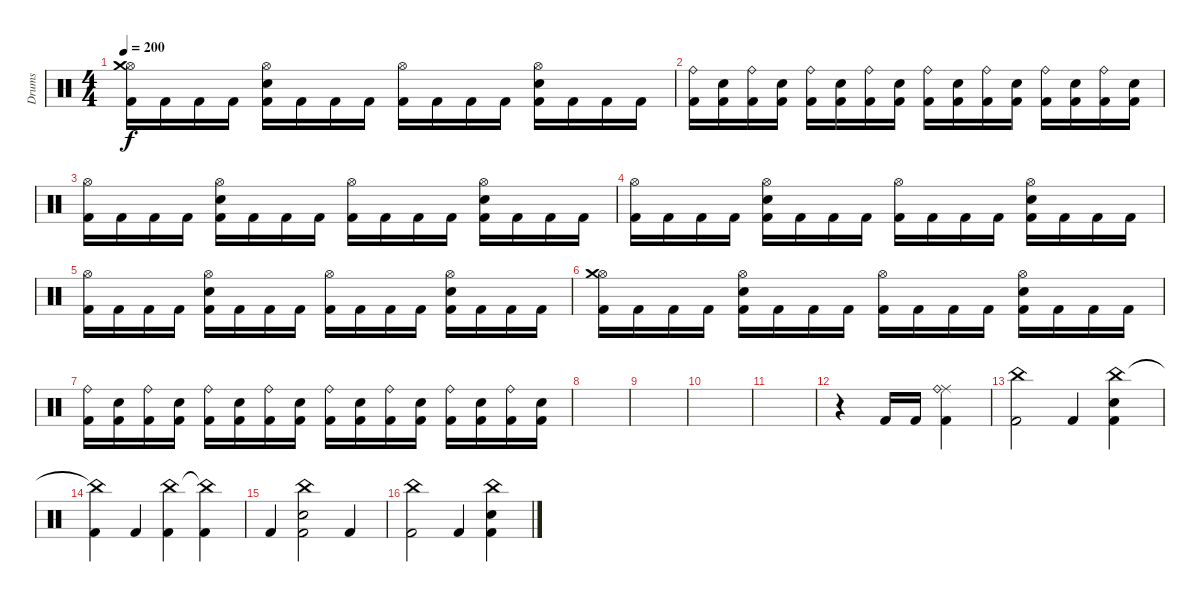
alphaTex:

\track ("Drums" "Drums") {instrument percussion}
\staff {score}
\articulation defaults
\ts (4 4)
\tempo 200
\clef neutral
\ks c
("Hi-Hat (open)" "Crash medium (hit)" "Kick (hit) 2").16{dy f} "Kick (hit) 2".16 "Kick (hit) 2".16 "Kick (hit) 2".16 ("Hi-Hat (open)" "Electric Snare (hit)" "Kick (hit) 2").16 "Kick (hit) 2".16 "Kick (hit) 2".16 "Kick (hit) 2".16 ("Hi-Hat (open)" "Kick (hit) 2").16 "Kick (hit) 2".16 "Kick (hit) 2".16 "Kick (hit) 2".16 ("Hi-Hat (open)" "Electric Snare (hit)" "Kick (hit) 2").16 "Kick (hit) 2".16 "Kick (hit) 2".16 "Kick (hit) 2".16 |
("Ride (bell)" "Kick (hit) 2").16 ("Electric Snare (hit)" "Kick (hit) 2").16 ("Ride (bell)" "Kick (hit) 2").16 ("Electric Snare (hit)" "Kick (hit) 2").16 ("Ride (bell)" "Kick (hit) 2").16 ("Electric Snare (hit)" "Kick (hit) 2").16 ("Ride (bell)" "Kick (hit) 2").16 ("Electric Snare (hit)" "Kick (hit) 2").16 ("Ride (bell)" "Kick (hit) 2").16 ("Electric Snare (hit)" "Kick (hit) 2").16 ("Ride (bell)" "Kick (hit) 2").16 ("Electric Snare (hit)" "Kick (hit) 2").16 ("Ride (bell)" "Kick (hit) 2").16 ("Electric Snare (hit)" "Kick (hit) 2").16 ("Ride (bell)" "Kick (hit) 2").16 ("Electric Snare (hit)" "Kick (hit) 2").16 |
("Hi-Hat (open)" "Kick (hit) 2").16 "Kick (hit) 2".16 "Kick (hit) 2".16 "Kick (hit) 2".16 ("Hi-Hat (open)" "Electric Snare (hit)" "Kick (hit) 2").16 "Kick (hit) 2".16 "Kick (hit) 2".16 "Kick (hit) 2".16 ("Hi-Hat (open)" "Kick (hit) 2").16 "Kick (hit) 2".16 "Kick (hit) 2".16 "Kick (hit) 2".16 ("Hi-Hat (open)" "Electric Snare (hit)" "Kick (hit) 2").16 "Kick (hit) 2".16 "Kick (hit) 2".16 "Kick (hit) 2".16 |
("Hi-Hat (open)" "Kick (hit) 2").16 "Kick (hit) 2".16 "Kick (hit) 2".16 "Kick (hit) 2".16 ("Hi-Hat (open)" "Electric Snare (hit)" "Kick (hit) 2").16 "Kick (hit) 2".16 "Kick (hit) 2".16 "Kick (hit) 2".16 ("Hi-Hat (open)" "Kick (hit) 2").16 "Kick (hit) 2".16 "Kick (hit) 2".16 "Kick (hit) 2".16 ("Hi-Hat (open)" "Electric Snare (hit)" "Kick (hit) 2").16 "Kick (hit) 2".16 "Kick (hit) 2".16 "Kick (hit) 2".16 |
("Hi-Hat (open)" "Kick (hit) 2").16 "Kick (hit) 2".16 "Kick (hit) 2".16 "Kick (hit) 2".16 ("Hi-Hat (open)" "Electric Snare (hit)" "Kick (hit) 2").16 "Kick (hit) 2".16 "Kick (hit) 2".16 "Kick (hit) 2".16 ("Hi-Hat (open)" "Kick (hit) 2").16 "Kick (hit) 2".16 "Kick (hit) 2".16 "Kick (hit) 2".16 ("Hi-Hat (open)" "Electric Snare (hit)" "Kick (hit) 2").16 "Kick (hit) 2".16 "Kick (hit) 2".16 "Kick (hit) 2".16 |
("Hi-Hat (open)" "Crash medium (hit)" "Kick (hit) 2").16 "Kick (hit) 2".16 "Kick (hit) 2".16 "Kick (hit) 2".16 ("Hi-Hat (open)" "Electric Snare (hit)" "Kick (hit) 2").16 "Kick (hit) 2".16 "Kick (hit) 2".16 "Kick (hit) 2".16 ("Hi-Hat (open)" "Kick (hit) 2").16 "Kick (hit) 2".16 "Kick (hit) 2".16 "Kick (hit) 2".16 ("Hi-Hat (open)" "Electric Snare (hit)" "Kick (hit) 2").16 "Kick (hit) 2".16 "Kick (hit) 2".16 "Kick (hit) 2".16 |
("Ride (bell)" "Kick (hit) 2").16 ("Electric Snare (hit)" "Kick (hit) 2").16 ("Ride (bell)" "Kick (hit) 2").16 ("Electric Snare (hit)" "Kick (hit) 2").16 ("Ride (bell)" "Kick (hit) 2").16 ("Electric Snare (hit)" "Kick (hit) 2").16 ("Ride (bell)" "Kick (hit) 2").16 ("Electric Snare (hit)" "Kick (hit) 2").16 ("Ride (bell)" "Kick (hit) 2").16 ("Electric Snare (hit)" "Kick (hit) 2").16 ("Ride (bell)" "Kick (hit) 2").16 ("Electric Snare (hit)" "Kick (hit) 2").16 ("Ride (bell)" "Kick (hit) 2").16 ("Electric Snare (hit)" "Kick (hit) 2").16 ("Ride (bell)" "Kick (hit) 2").16 ("Electric Snare (hit)" "Kick (hit) 2").16 |
|
|
|
|
r.4 "Kick (hit) 2".16 "Kick (hit) 2".16 ("Ride (middle)" "Ride (bell)" "Kick (hit) 2").4 |
("China (hit)" "Kick (hit) 2").2 "Kick (hit) 2".4 ("China (hit)" "Electric Snare (hit)" "Kick (hit) 2").4 |
("China (hit)"{t} "Kick (hit) 2").4 "Kick (hit) 2".4 ("China (hit)" "Kick (hit) 2").4 ("China (hit)"{t} "Kick (hit) 2").4 |
"Kick (hit) 2".4 ("China (hit)" "Electric Snare (hit)" "Kick (hit) 2").2 "Kick (hit) 2".4 |
("China (hit)" "Kick (hit) 2").2 "Kick (hit) 2".4 ("China (hit)" "Electric Snare (hit)" "Kick (hit) 2").4
